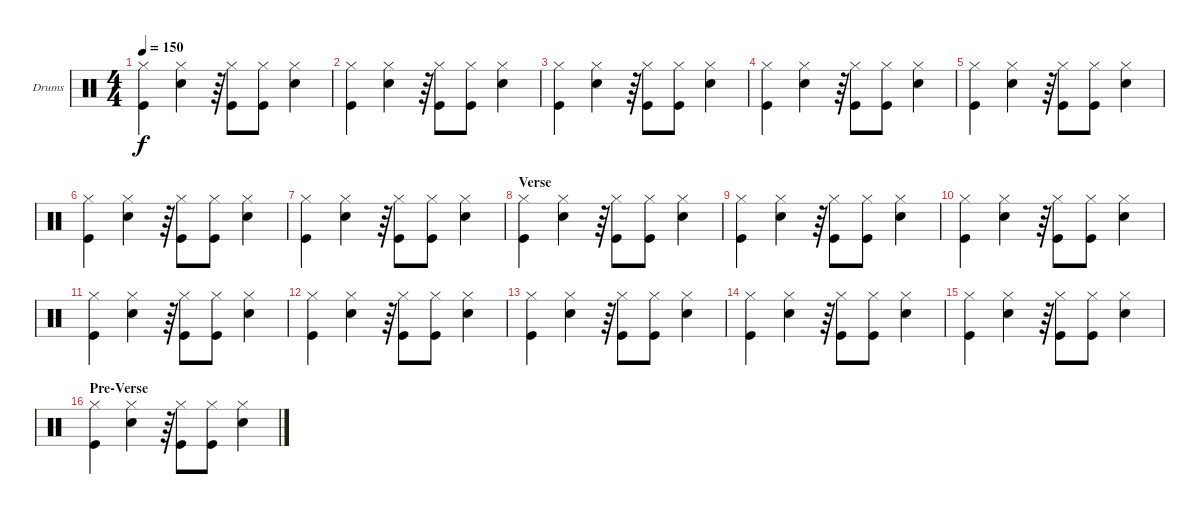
\defaultSystemsLayout 4
\bracketExtendMode groupsimilarinstruments
\firstSystemTrackNameOrientation horizontal
\otherSystemsTrackNameOrientation horizontal
\track ("Drum" "Drums") {instrument percussion}
\staff {score}
\articulation defaults
\ts (4 4)
\tempo 150
\clef neutral
\ks c
("Hi-Hat (closed)" "Kick (hit)").4{dy f} ("Hi-Hat (closed)" "Snare (hit) 2").4 r.64 ("Hi-Hat (closed)" "Kick (hit)").8 ("Hi-Hat (closed)" "Kick (hit)").8 ("Hi-Hat (closed)" "Snare (hit) 2").4 |
("Hi-Hat (closed)" "Kick (hit)").4 ("Hi-Hat (closed)" "Snare (hit) 2").4 r.64 ("Hi-Hat (closed)" "Kick (hit)").8 ("Hi-Hat (closed)" "Kick (hit)").8 ("Hi-Hat (closed)" "Snare (hit) 2").4 |
("Hi-Hat (closed)" "Kick (hit)").4 ("Hi-Hat (closed)" "Snare (hit) 2").4 r.64 ("Hi-Hat (closed)" "Kick (hit)").8 ("Hi-Hat (closed)" "Kick (hit)").8 ("Hi-Hat (closed)" "Snare (hit) 2").4 |
("Hi-Hat (closed)" "Kick (hit)").4 ("Hi-Hat (closed)" "Snare (hit) 2").4 r.64 ("Hi-Hat (closed)" "Kick (hit)").8 ("Hi-Hat (closed)" "Kick (hit)").8 ("Hi-Hat (closed)" "Snare (hit) 2").4 |
("Hi-Hat (closed)" "Kick (hit)").4 ("Hi-Hat (closed)" "Snare (hit) 2").4 r.64 ("Hi-Hat (closed)" "Kick (hit)").8 ("Hi-Hat (closed)" "Kick (hit)").8 ("Hi-Hat (closed)" "Snare (hit) 2").4 |
("Hi-Hat (closed)" "Kick (hit)").4 ("Hi-Hat (closed)" "Snare (hit) 2").4 r.64 ("Hi-Hat (closed)" "Kick (hit)").8 ("Hi-Hat (closed)" "Kick (hit)").8 ("Hi-Hat (closed)" "Snare (hit) 2").4 |
("Hi-Hat (closed)" "Kick (hit)").4 ("Hi-Hat (closed)" "Snare (hit) 2").4 r.64 ("Hi-Hat (closed)" "Kick (hit)").8 ("Hi-Hat (closed)" "Kick (hit)").8 ("Hi-Hat (closed)" "Snare (hit) 2").4 |
\section ("" "Verse")
("Hi-Hat (closed)" "Kick (hit)").4 ("Hi-Hat (closed)" "Snare (hit) 2").4 r.64 ("Hi-Hat (closed)" "Kick (hit)").8 ("Hi-Hat (closed)" "Kick (hit)").8 ("Hi-Hat (closed)" "Snare (hit) 2").4 |
("Hi-Hat (closed)" "Kick (hit)").4 ("Hi-Hat (closed)" "Snare (hit) 2").4 r.64 ("Hi-Hat (closed)" "Kick (hit)").8 ("Hi-Hat (closed)" "Kick (hit)").8 ("Hi-Hat (closed)" "Snare (hit) 2").4 |
("Hi-Hat (closed)" "Kick (hit)").4 ("Hi-Hat (closed)" "Snare (hit) 2").4 r.64 ("Hi-Hat (closed)" "Kick (hit)").8 ("Hi-Hat (closed)" "Kick (hit)").8 ("Hi-Hat (closed)" "Snare (hit) 2").4 |
("Hi-Hat (closed)" "Kick (hit)").4 ("Hi-Hat (closed)" "Snare (hit) 2").4 r.64 ("Hi-Hat (closed)" "Kick (hit)").8 ("Hi-Hat (closed)" "Kick (hit)").8 ("Hi-Hat (closed)" "Snare (hit) 2").4 |
("Hi-Hat (closed)" "Kick (hit)").4 ("Hi-Hat (closed)" "Snare (hit) 2").4 r.64 ("Hi-Hat (closed)" "Kick (hit)").8 ("Hi-Hat (closed)" "Kick (hit)").8 ("Hi-Hat (closed)" "Snare (hit) 2").4 |
("Hi-Hat (closed)" "Kick (hit)").4 ("Hi-Hat (closed)" "Snare (hit) 2").4 r.64 ("Hi-Hat (closed)" "Kick (hit)").8 ("Hi-Hat (closed)" "Kick (hit)").8 ("Hi-Hat (closed)" "Snare (hit) 2").4 |
("Hi-Hat (closed)" "Kick (hit)").4 ("Hi-Hat (closed)" "Snare (hit) 2").4 r.64 ("Hi-Hat (closed)" "Kick (hit)").8 ("Hi-Hat (closed)" "Kick (hit)").8 ("Hi-Hat (closed)" "Snare (hit) 2").4 |
("Hi-Hat (closed)" "Kick (hit)").4 ("Hi-Hat (closed)" "Snare (hit) 2").4 r.64 ("Hi-Hat (closed)" "Kick (hit)").8 ("Hi-Hat (closed)" "Kick (hit)").8 ("Hi-Hat (closed)" "Snare (hit) 2").4 |
\section ("" "Pre-Verse")
("Hi-Hat (closed)" "Kick (hit)").4 ("Hi-Hat (closed)" "Snare (hit) 2").4 r.64 ("Hi-Hat (closed)" "Kick (hit)").8 ("Hi-Hat (closed)" "Kick (hit)").8 ("Hi-Hat (closed)" "Snare (hit) 2").4
